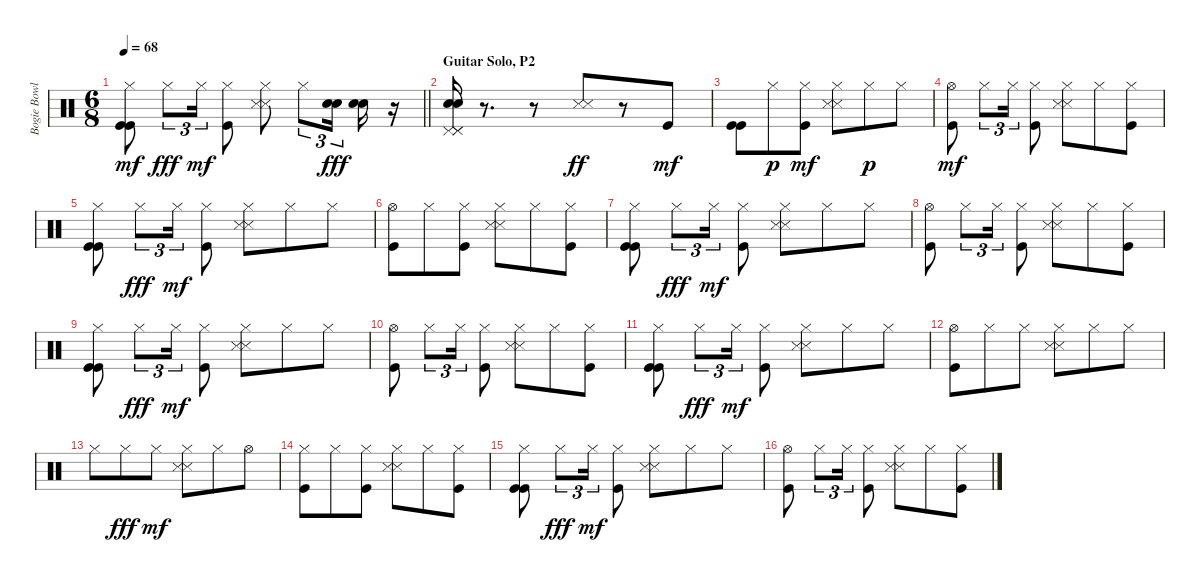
\track ("Bogie Bowles" "Bogie Bowl") {instrument percussion}
\staff {score}
\articulation defaults
\ts (6 8)
\tempo 68
\clef neutral
\barLineRight lightlight
\ks c
("Hi-Hat (closed)" "Kick (hit)" "Kick (hit)").8{dy mf} "Hi-Hat (closed)".8{tu (3 2) dy fff} "Hi-Hat (closed)".16{tu (3 2) dy mf} ("Hi-Hat (closed)" "Kick (hit)").8 ("Hi-Hat (closed)" "Snare (side stick) 3" "Snare (side stick) 3").8 "Hi-Hat (closed)".8{tu (3 2)} ("Snare (hit) 2" "Snare (hit) 2").16{tu (3 2) dy fff} ("Snare (hit) 2" "Snare (hit) 2").16 r.16 |
\section ("" "Guitar Solo, P2")
("Pedal Hi-Hat (hit)" "Pedal Hi-Hat (hit)" "Pedal Hi-Hat (hit)" "Snare (hit) 2" "Snare (hit) 2").16 r.8{d} r.8 ("Snare (side stick) 3" "Snare (side stick) 3").8{dy ff} r.8 "Kick (hit)".8{dy mf} |
("Kick (hit)" "Kick (hit)").8 "Hi-Hat (closed)".8{dy p} ("Hi-Hat (closed)" "Kick (hit)").8{dy mf} ("Hi-Hat (closed)" "Snare (side stick) 3" "Snare (side stick) 3").8 "Hi-Hat (closed)".8{dy p} "Hi-Hat (closed)".8 |
("Hi-Hat (open)" "Kick (hit)").8{dy mf} "Hi-Hat (closed)".8{tu (3 2)} "Hi-Hat (closed)".16{tu (3 2)} ("Hi-Hat (closed)" "Kick (hit)").8 ("Hi-Hat (closed)" "Snare (side stick) 3" "Snare (side stick) 3").8 "Hi-Hat (closed)".8 ("Hi-Hat (closed)" "Kick (hit)").8 |
("Hi-Hat (closed)" "Kick (hit)" "Kick (hit)").8 "Hi-Hat (closed)".8{tu (3 2) dy fff} "Hi-Hat (closed)".16{tu (3 2) dy mf} ("Hi-Hat (closed)" "Kick (hit)").8 ("Hi-Hat (closed)" "Snare (side stick) 3" "Snare (side stick) 3").8 "Hi-Hat (closed)".8 "Hi-Hat (closed)".8 |
("Hi-Hat (open)" "Kick (hit)").8 "Hi-Hat (closed)".8 ("Hi-Hat (closed)" "Kick (hit)").8 ("Hi-Hat (closed)" "Snare (side stick) 3" "Snare (side stick) 3").8 "Hi-Hat (closed)".8 ("Hi-Hat (closed)" "Kick (hit)").8 |
("Hi-Hat (closed)" "Kick (hit)" "Kick (hit)").8 "Hi-Hat (closed)".8{tu (3 2) dy fff} "Hi-Hat (closed)".16{tu (3 2) dy mf} ("Hi-Hat (closed)" "Kick (hit)").8 ("Hi-Hat (closed)" "Snare (side stick) 3" "Snare (side stick) 3").8 "Hi-Hat (closed)".8 "Hi-Hat (closed)".8 |
("Hi-Hat (open)" "Kick (hit)").8 "Hi-Hat (closed)".8{tu (3 2)} "Hi-Hat (closed)".16{tu (3 2)} ("Hi-Hat (closed)" "Kick (hit)").8 ("Hi-Hat (closed)" "Snare (side stick) 3" "Snare (side stick) 3").8 "Hi-Hat (closed)".8 ("Hi-Hat (closed)" "Kick (hit)").8 |
("Hi-Hat (closed)" "Kick (hit)" "Kick (hit)").8 "Hi-Hat (closed)".8{tu (3 2) dy fff} "Hi-Hat (closed)".16{tu (3 2) dy mf} ("Hi-Hat (closed)" "Kick (hit)").8 ("Hi-Hat (closed)" "Snare (side stick) 3" "Snare (side stick) 3").8 "Hi-Hat (closed)".8 "Hi-Hat (closed)".8 |
("Hi-Hat (open)" "Kick (hit)").8 "Hi-Hat (closed)".8{tu (3 2)} "Hi-Hat (closed)".16{tu (3 2)} ("Hi-Hat (closed)" "Kick (hit)").8 ("Hi-Hat (closed)" "Snare (side stick) 3" "Snare (side stick) 3").8 "Hi-Hat (closed)".8 ("Hi-Hat (closed)" "Kick (hit)").8 |
("Hi-Hat (closed)" "Kick (hit)" "Kick (hit)").8 "Hi-Hat (closed)".8{tu (3 2) dy fff} "Hi-Hat (closed)".16{tu (3 2) dy mf} ("Hi-Hat (closed)" "Kick (hit)").8 ("Hi-Hat (closed)" "Snare (side stick) 3" "Snare (side stick) 3").8 "Hi-Hat (closed)".8 "Hi-Hat (closed)".8 |
("Hi-Hat (open)" "Kick (hit)").8 "Hi-Hat (closed)".8 "Hi-Hat (closed)".8 ("Hi-Hat (closed)" "Snare (side stick) 3" "Snare (side stick) 3").8 "Hi-Hat (closed)".8 "Hi-Hat (closed)".8 |
"Hi-Hat (closed)".8 "Hi-Hat (closed)".8{dy fff} "Hi-Hat (closed)".8{dy mf} ("Hi-Hat (closed)" "Snare (side stick) 3" "Snare (side stick) 3").8 "Hi-Hat (closed)".8 "Hi-Hat (open)".8 |
("Hi-Hat (closed)" "Kick (hit)").8 "Hi-Hat (closed)".8 ("Hi-Hat (closed)" "Kick (hit)").8 ("Hi-Hat (closed)" "Snare (side stick) 3" "Snare (side stick) 3").8 "Hi-Hat (closed)".8 ("Hi-Hat (closed)" "Kick (hit)").8 |
("Hi-Hat (closed)" "Kick (hit)" "Kick (hit)").8 "Hi-Hat (closed)".8{tu (3 2) dy fff} "Hi-Hat (closed)".16{tu (3 2) dy mf} ("Hi-Hat (closed)" "Kick (hit)").8 ("Hi-Hat (closed)" "Snare (side stick) 3" "Snare (side stick) 3").8 "Hi-Hat (closed)".8 "Hi-Hat (closed)".8 |
("Hi-Hat (open)" "Kick (hit)").8 "Hi-Hat (closed)".8{tu (3 2)} "Hi-Hat (closed)".16{tu (3 2)} ("Hi-Hat (closed)" "Kick (hit)").8 ("Hi-Hat (closed)" "Snare (side stick) 3" "Snare (side stick) 3").8 "Hi-Hat (closed)".8 ("Hi-Hat (closed)" "Kick (hit)").8
